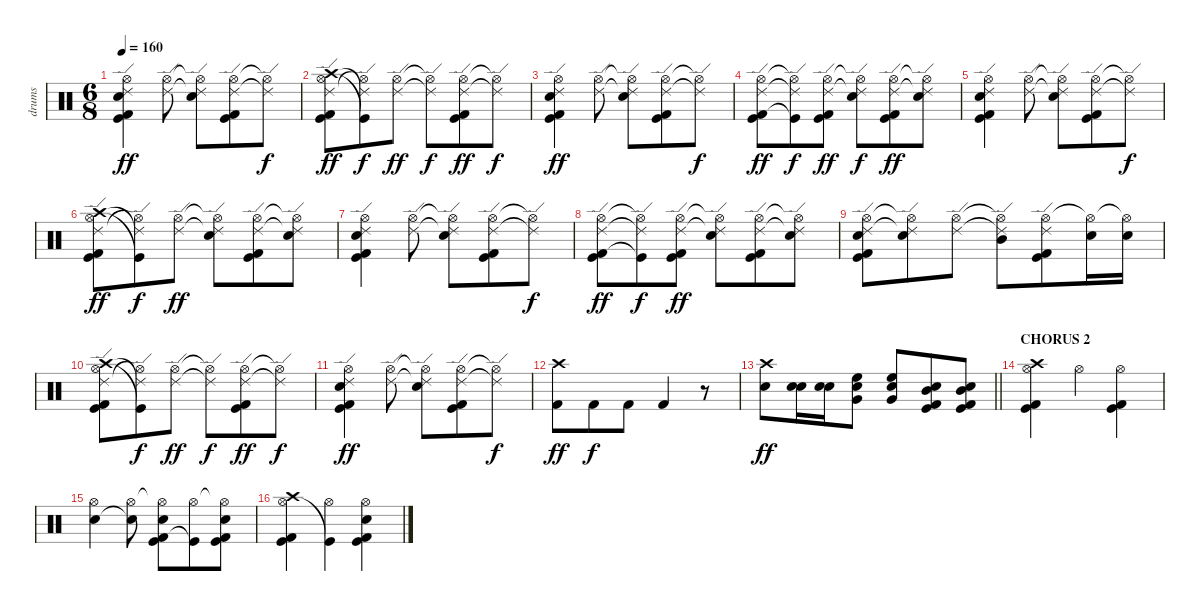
\track ("drums" "drums") {instrument percussion}
\staff {score}
\articulation defaults
\ts (6 8)
\tempo 160
\clef neutral
\ks c
("Hi-Hat (open)" "Ride (edge) 2" "Snare (hit) 2" "Kick (hit) 2" "Kick (hit)").4{dy ff} ("Hi-Hat (open)" "Ride (edge) 2").8 ("Hi-Hat (open)"{t} "Ride (edge) 2"{t} "Electric Snare (hit)").8 ("Hi-Hat (open)" "Ride (edge) 2" "Kick (hit) 2" "Kick (hit)").8 ("Hi-Hat (open)"{t} "Ride (edge) 2"{t}).8{dy f} |
("Crash high (hit)" "Ride (edge) 2" "Hi-Hat (open)" "Kick (hit) 2" "Kick (hit)").8{dy ff} ("Ride (edge) 2"{t} "Hi-Hat (open)"{t} "Kick (hit)"{t}).8{dy f} ("Ride (edge) 2" "Hi-Hat (open)").8{dy ff} ("Ride (edge) 2"{t} "Hi-Hat (open)"{t}).8{dy f} ("Ride (edge) 2" "Hi-Hat (open)" "Kick (hit) 2" "Kick (hit)").8{dy ff} ("Ride (edge) 2"{t} "Hi-Hat (open)"{t}).8{dy f} |
("Hi-Hat (open)" "Ride (edge) 2" "Snare (hit) 2" "Kick (hit) 2" "Kick (hit)").4{dy ff} ("Hi-Hat (open)" "Ride (edge) 2").8 ("Hi-Hat (open)"{t} "Ride (edge) 2"{t} "Electric Snare (hit)").8 ("Hi-Hat (open)" "Ride (edge) 2" "Kick (hit) 2" "Kick (hit)").8 ("Hi-Hat (open)"{t} "Ride (edge) 2"{t}).8{dy f} |
("Hi-Hat (open)" "Ride (edge) 2" "Kick (hit) 2" "Kick (hit)").8{dy ff} ("Hi-Hat (open)"{t} "Ride (edge) 2"{t} "Kick (hit)"{t}).8{dy f} ("Hi-Hat (open)" "Ride (edge) 2" "Kick (hit) 2" "Kick (hit)").8{dy ff} ("Hi-Hat (open)"{t} "Ride (edge) 2"{t} "Electric Snare (hit)").8{dy f} ("Hi-Hat (open)" "Ride (edge) 2" "Kick (hit) 2" "Kick (hit)").8{dy ff} ("Hi-Hat (open)"{t} "Ride (edge) 2"{t} "Electric Snare (hit)").8 |
("Hi-Hat (open)" "Ride (edge) 2" "Snare (hit) 2" "Kick (hit) 2" "Kick (hit)").4 ("Hi-Hat (open)" "Ride (edge) 2").8 ("Hi-Hat (open)"{t} "Ride (edge) 2"{t} "Electric Snare (hit)").8 ("Hi-Hat (open)" "Ride (edge) 2" "Kick (hit) 2" "Kick (hit)").8 ("Hi-Hat (open)"{t} "Ride (edge) 2"{t}).8{dy f} |
("Crash high (hit)" "Ride (edge) 2" "Hi-Hat (open)" "Kick (hit) 2" "Kick (hit)").8{dy ff} ("Ride (edge) 2"{t} "Hi-Hat (open)"{t} "Kick (hit)"{t}).8{dy f} ("Ride (edge) 2" "Hi-Hat (open)").8{dy ff} ("Ride (edge) 2"{t} "Hi-Hat (open)"{t} "Electric Snare (hit)").8 ("Ride (edge) 2" "Hi-Hat (open)" "Kick (hit) 2" "Kick (hit)").8 ("Ride (edge) 2"{t} "Hi-Hat (open)"{t} "Electric Snare (hit)").8 |
("Hi-Hat (open)" "Ride (edge) 2" "Snare (hit) 2" "Kick (hit) 2" "Kick (hit)").4 ("Hi-Hat (open)" "Ride (edge) 2").8 ("Hi-Hat (open)"{t} "Ride (edge) 2"{t} "Electric Snare (hit)").8 ("Hi-Hat (open)" "Ride (edge) 2" "Kick (hit) 2" "Kick (hit)").8 ("Hi-Hat (open)"{t} "Ride (edge) 2"{t}).8{dy f} |
("Hi-Hat (open)" "Ride (edge) 2" "Kick (hit) 2" "Kick (hit)").8{dy ff} ("Hi-Hat (open)"{t} "Ride (edge) 2"{t} "Kick (hit)"{t}).8{dy f} ("Hi-Hat (open)" "Ride (edge) 2" "Kick (hit) 2" "Kick (hit)").8{dy ff} ("Hi-Hat (open)"{t} "Ride (edge) 2"{t} "Electric Snare (hit)").8 ("Hi-Hat (open)" "Ride (edge) 2" "Kick (hit) 2" "Kick (hit)").8 ("Hi-Hat (open)"{t} "Ride (edge) 2"{t} "Electric Snare (hit)").8 |
("Hi-Hat (open)" "Ride (edge) 2" "Snare (hit) 2" "Kick (hit) 2" "Kick (hit)").8 ("Hi-Hat (open)"{t} "Ride (edge) 2"{t} "Electric Snare (hit)").8 ("Hi-Hat (open)" "Ride (edge) 2").8 ("Hi-Hat (open)"{t} "Ride (edge) 2"{t} "Mid Tom (hit)").8 ("Hi-Hat (open)" "Ride (edge) 2" "Kick (hit) 2" "Kick (hit)").8 ("Hi-Hat (open)"{t} "Electric Snare (hit)").16 ("Hi-Hat (open)"{t} "Electric Snare (hit)").16 |
("Crash high (hit)" "Ride (edge) 2" "Hi-Hat (open)" "Kick (hit) 2" "Kick (hit)").8 ("Ride (edge) 2"{t} "Hi-Hat (open)"{t} "Kick (hit)"{t}).8{dy f} ("Ride (edge) 2" "Hi-Hat (open)").8{dy ff} ("Ride (edge) 2"{t} "Hi-Hat (open)"{t}).8{dy f} ("Ride (edge) 2" "Hi-Hat (open)" "Kick (hit) 2" "Kick (hit)").8{dy ff} ("Ride (edge) 2"{t} "Hi-Hat (open)"{t}).8{dy f} |
("Hi-Hat (open)" "Ride (edge) 2" "Snare (hit) 2" "Kick (hit) 2" "Kick (hit)").4{dy ff} ("Hi-Hat (open)" "Ride (edge) 2").8 ("Hi-Hat (open)"{t} "Ride (edge) 2"{t} "Electric Snare (hit)").8 ("Hi-Hat (open)" "Ride (edge) 2" "Kick (hit) 2" "Kick (hit)").8 ("Hi-Hat (open)"{t} "Ride (edge) 2"{t}).8{dy f} |
("Crash high (hit)" "Kick (hit) 2").8{dy ff} "Kick (hit) 2".8{dy f} "Kick (hit) 2".8 "Kick (hit) 2".4 r.8 |
\barLineRight lightlight
("Crash high (hit)" "Electric Snare (hit)").8{dy ff} ("Electric Snare (hit)" "Snare (hit) 2").16 ("Electric Snare (hit)" "Snare (hit) 2").16 ("Electric Snare (hit)" "High Floor Tom (hit)" "Very Low Tom (hit)").8 ("Electric Snare (hit)" "High Floor Tom (hit)" "Very Low Tom (hit)").8 ("Electric Snare (hit)" "Mid Tom (hit)" "Kick (hit)" "Kick (hit) 2").8 ("Electric Snare (hit)" "Mid Tom (hit)" "Kick (hit)" "Kick (hit) 2").8 |
\section ("" "CHORUS 2")
("Crash high (hit)" "Hi-Hat (open)" "Kick (hit) 2" "Kick (hit)").4 "Hi-Hat (open)".4 ("Hi-Hat (open)" "Kick (hit) 2" "Kick (hit)").4 |
("Hi-Hat (open)" "Electric Snare (hit)").4 ("Hi-Hat (open)" "Electric Snare (hit)"{t}).8 ("Hi-Hat (open)"{t} "Kick (hit) 2" "Electric Snare (hit)" "Kick (hit)").8 ("Hi-Hat (open)" "Kick (hit)"{t}).8 ("Hi-Hat (open)"{t} "Kick (hit) 2" "Electric Snare (hit)" "Kick (hit)").8 |
("Crash high (hit)" "Hi-Hat (open)" "Kick (hit) 2" "Kick (hit)").4 ("Hi-Hat (open)" "Kick (hit)"{t}).4 ("Hi-Hat (open)" "Electric Snare (hit)" "Kick (hit) 2" "Kick (hit)").4
